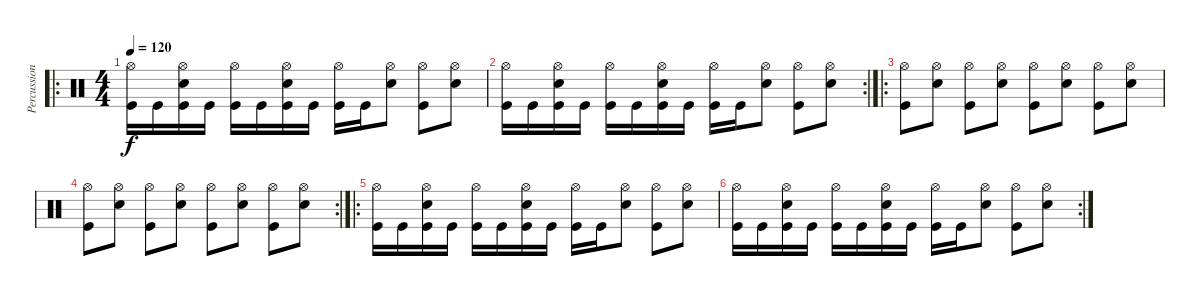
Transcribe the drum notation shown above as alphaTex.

\track ("Percussion" "Percussion") {instrument percussion}
\staff {score}
\articulation defaults
\ro
\ts (4 4)
\tempo 120
\clef neutral
\ks c
("Hi-Hat (open)" "Kick (hit)").16{dy f} "Kick (hit)".16 ("Hi-Hat (open)" "Snare (hit) 2" "Kick (hit)").16 "Kick (hit)".16 ("Hi-Hat (open)" "Kick (hit)").16 "Kick (hit)".16 ("Hi-Hat (open)" "Snare (hit) 2" "Kick (hit)").16 "Kick (hit)".16 ("Hi-Hat (open)" "Kick (hit)").16 "Kick (hit)".16 ("Hi-Hat (open)" "Snare (hit) 2").8 ("Hi-Hat (open)" "Kick (hit)").8 ("Hi-Hat (open)" "Snare (hit) 2").8 |
\rc 2
("Hi-Hat (open)" "Kick (hit)").16 "Kick (hit)".16 ("Hi-Hat (open)" "Snare (hit) 2" "Kick (hit)").16 "Kick (hit)".16 ("Hi-Hat (open)" "Kick (hit)").16 "Kick (hit)".16 ("Hi-Hat (open)" "Snare (hit) 2" "Kick (hit)").16 "Kick (hit)".16 ("Hi-Hat (open)" "Kick (hit)").16 "Kick (hit)".16 ("Hi-Hat (open)" "Snare (hit) 2").8 ("Hi-Hat (open)" "Kick (hit)").8 ("Hi-Hat (open)" "Snare (hit) 2").8 |
\ro
("Hi-Hat (open)" "Kick (hit)").8 ("Hi-Hat (open)" "Snare (hit) 2").8 ("Hi-Hat (open)" "Kick (hit)").8 ("Hi-Hat (open)" "Snare (hit) 2").8 ("Hi-Hat (open)" "Kick (hit)").8 ("Hi-Hat (open)" "Snare (hit) 2").8 ("Hi-Hat (open)" "Kick (hit)").8 ("Hi-Hat (open)" "Snare (hit) 2").8 |
\rc 2
("Hi-Hat (open)" "Kick (hit)").8 ("Hi-Hat (open)" "Snare (hit) 2").8 ("Hi-Hat (open)" "Kick (hit)").8 ("Hi-Hat (open)" "Snare (hit) 2").8 ("Hi-Hat (open)" "Kick (hit)").8 ("Hi-Hat (open)" "Snare (hit) 2").8 ("Hi-Hat (open)" "Kick (hit)").8 ("Hi-Hat (open)" "Snare (hit) 2").8 |
\ro
("Hi-Hat (open)" "Kick (hit)").16 "Kick (hit)".16 ("Hi-Hat (open)" "Snare (hit) 2" "Kick (hit)").16 "Kick (hit)".16 ("Hi-Hat (open)" "Kick (hit)").16 "Kick (hit)".16 ("Hi-Hat (open)" "Snare (hit) 2" "Kick (hit)").16 "Kick (hit)".16 ("Hi-Hat (open)" "Kick (hit)").16 "Kick (hit)".16 ("Hi-Hat (open)" "Snare (hit) 2").8 ("Hi-Hat (open)" "Kick (hit)").8 ("Hi-Hat (open)" "Snare (hit) 2").8 |
\rc 2
("Hi-Hat (open)" "Kick (hit)").16 "Kick (hit)".16 ("Hi-Hat (open)" "Snare (hit) 2" "Kick (hit)").16 "Kick (hit)".16 ("Hi-Hat (open)" "Kick (hit)").16 "Kick (hit)".16 ("Hi-Hat (open)" "Snare (hit) 2" "Kick (hit)").16 "Kick (hit)".16 ("Hi-Hat (open)" "Kick (hit)").16 "Kick (hit)".16 ("Hi-Hat (open)" "Snare (hit) 2").8 ("Hi-Hat (open)" "Kick (hit)").8 ("Hi-Hat (open)" "Snare (hit) 2").8
